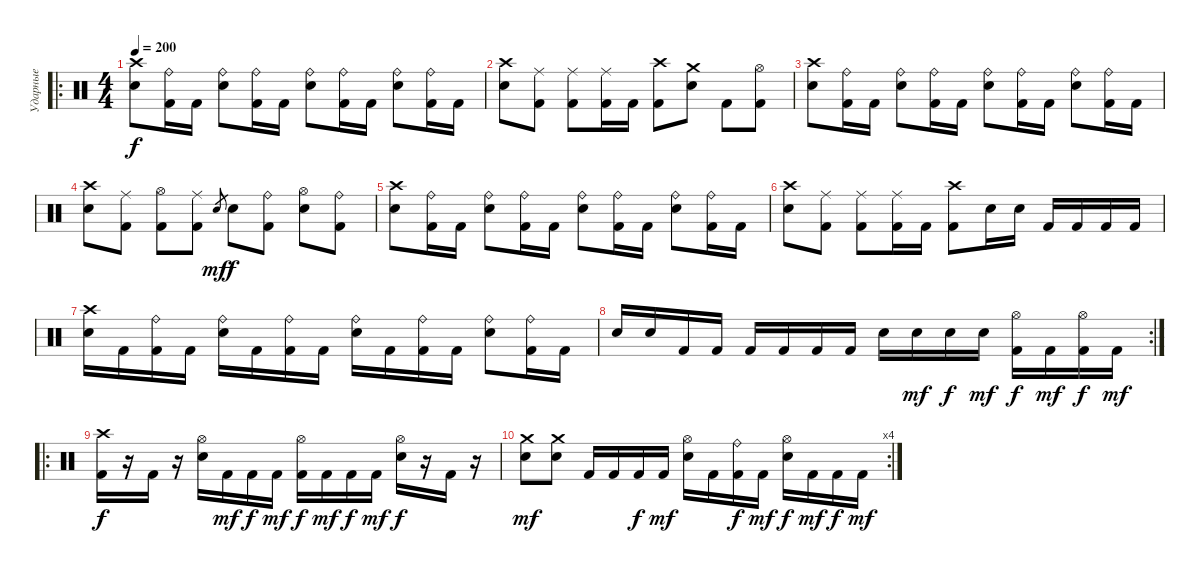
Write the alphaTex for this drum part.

\track ("Ударные" "Ударные") {instrument percussion}
\staff {score}
\articulation defaults
\ro
\ts (4 4)
\tempo 200
\clef neutral
\ks c
("Crash high (hit)" "Electric Snare (hit)").8{dy f} ("Ride (bell)" "Kick (hit) 2").16 "Kick (hit) 2".16 ("Ride (bell)" "Electric Snare (hit)").8 ("Ride (bell)" "Kick (hit) 2").16 "Kick (hit) 2".16 ("Ride (bell)" "Electric Snare (hit)").8 ("Ride (bell)" "Kick (hit) 2").16 "Kick (hit) 2".16 ("Ride (bell)" "Electric Snare (hit)").8 ("Ride (bell)" "Kick (hit) 2").16 "Kick (hit) 2".16 |
("Crash high (hit)" "Electric Snare (hit)").8 ("Ride (middle)" "Kick (hit) 2").8 ("Ride (middle)" "Kick (hit) 2").8 ("Ride (middle)" "Kick (hit) 2").16 "Kick (hit) 2".16 ("Crash high (hit)" "Kick (hit) 2").8 ("Crash medium (hit)" "Electric Snare (hit)").8 "Kick (hit) 2".8 ("Hi-Hat (open)" "Kick (hit) 2").8 |
("Crash high (hit)" "Electric Snare (hit)").8 ("Ride (bell)" "Kick (hit) 2").16 "Kick (hit) 2".16 ("Ride (bell)" "Electric Snare (hit)").8 ("Ride (bell)" "Kick (hit) 2").16 "Kick (hit) 2".16 ("Ride (bell)" "Electric Snare (hit)").8 ("Ride (bell)" "Kick (hit) 2").16 "Kick (hit) 2".16 ("Ride (bell)" "Electric Snare (hit)").8 ("Ride (bell)" "Kick (hit) 2").16 "Kick (hit) 2".16 |
("Crash high (hit)" "Electric Snare (hit)").8 ("Ride (middle)" "Kick (hit) 2").8 ("Hi-Hat (open)" "Kick (hit) 2").8 ("Ride (middle)" "Kick (hit) 2").8 "Electric Snare (hit)".8{gr dy mf} "Electric Snare (hit)".8{dy f} ("Ride (bell)" "Kick (hit) 2").8 ("Hi-Hat (open)" "Electric Snare (hit)").8 ("Ride (bell)" "Kick (hit) 2").8 |
("Crash high (hit)" "Electric Snare (hit)").8 ("Ride (bell)" "Kick (hit) 2").16 "Kick (hit) 2".16 ("Ride (bell)" "Electric Snare (hit)").8 ("Ride (bell)" "Kick (hit) 2").16 "Kick (hit) 2".16 ("Ride (bell)" "Electric Snare (hit)").8 ("Ride (bell)" "Kick (hit) 2").16 "Kick (hit) 2".16 ("Ride (bell)" "Electric Snare (hit)").8 ("Ride (bell)" "Kick (hit) 2").16 "Kick (hit) 2".16 |
("Crash high (hit)" "Electric Snare (hit)").8 ("Ride (middle)" "Kick (hit) 2").8 ("Ride (middle)" "Kick (hit) 2").8 ("Ride (middle)" "Kick (hit) 2").16 "Kick (hit) 2".16 ("Crash high (hit)" "Kick (hit) 2").8 "Electric Snare (hit)".16 "Electric Snare (hit)".16 "Kick (hit) 2".16 "Kick (hit) 2".16 "Kick (hit) 2".16 "Kick (hit) 2".16 |
("Crash high (hit)" "Electric Snare (hit)").16 "Kick (hit) 2".16 ("Ride (bell)" "Kick (hit) 2").16 "Kick (hit) 2".16 ("Ride (bell)" "Electric Snare (hit)").16 "Kick (hit) 2".16 ("Ride (bell)" "Kick (hit) 2").16 "Kick (hit) 2".16 ("Ride (bell)" "Electric Snare (hit)").16 "Kick (hit) 2".16 ("Ride (bell)" "Kick (hit) 2").16 "Kick (hit) 2".16 ("Ride (bell)" "Electric Snare (hit)").8 ("Ride (bell)" "Kick (hit) 2").16 "Kick (hit) 2".16 |
\rc 2 "Electric Snare (hit)".16 "Electric Snare (hit)".16 "Kick (hit) 2".16 "Kick (hit) 2".16 "Kick (hit) 2".16 "Kick (hit) 2".16 "Kick (hit) 2".16 "Kick (hit) 2".16 "Electric Snare (hit)".16 "Electric Snare (hit)".16{dy mf} "Electric Snare (hit)".16{dy f} "Electric Snare (hit)".16{dy mf}
("Hi-Hat (open)" "Kick (hit) 2").16{dy f} "Kick (hit) 2".16{dy mf} ("Hi-Hat (open)" "Kick (hit) 2").16{dy f} "Kick (hit) 2".16{dy mf} |
\ro
("Crash high (hit)" "Kick (hit) 2").16{dy f} r.16 "Kick (hit) 2".16 r.16 ("Hi-Hat (open)" "Electric Snare (hit)").16 "Kick (hit) 2".16{dy mf} "Kick (hit) 2".16{dy f} "Kick (hit) 2".16{dy mf} ("Hi-Hat (open)" "Kick (hit) 2").16{dy f} "Kick (hit) 2".16{dy mf} "Kick (hit) 2".16{dy f} "Kick (hit) 2".16{dy mf} ("Hi-Hat (open)" "Electric Snare (hit)").16{dy f} r.16 "Kick (hit) 2".16 r.16 |
\rc 4
("Crash medium (hit)" "Electric Snare (hit)").8{dy mf} ("Crash medium (hit)" "Electric Snare (hit)").8 "Kick (hit) 2".16 "Kick (hit) 2".16 "Kick (hit) 2".16{dy f} "Kick (hit) 2".16{dy mf} ("Hi-Hat (open)" "Electric Snare (hit)").16 "Kick (hit) 2".16 ("Ride (bell)" "Kick (hit) 2").16{dy f} "Kick (hit) 2".16{dy mf} ("Hi-Hat (open)" "Electric Snare (hit)").16{dy f} "Kick (hit) 2".16{dy mf} "Kick (hit) 2".16{dy f} "Kick (hit) 2".16{dy mf}
